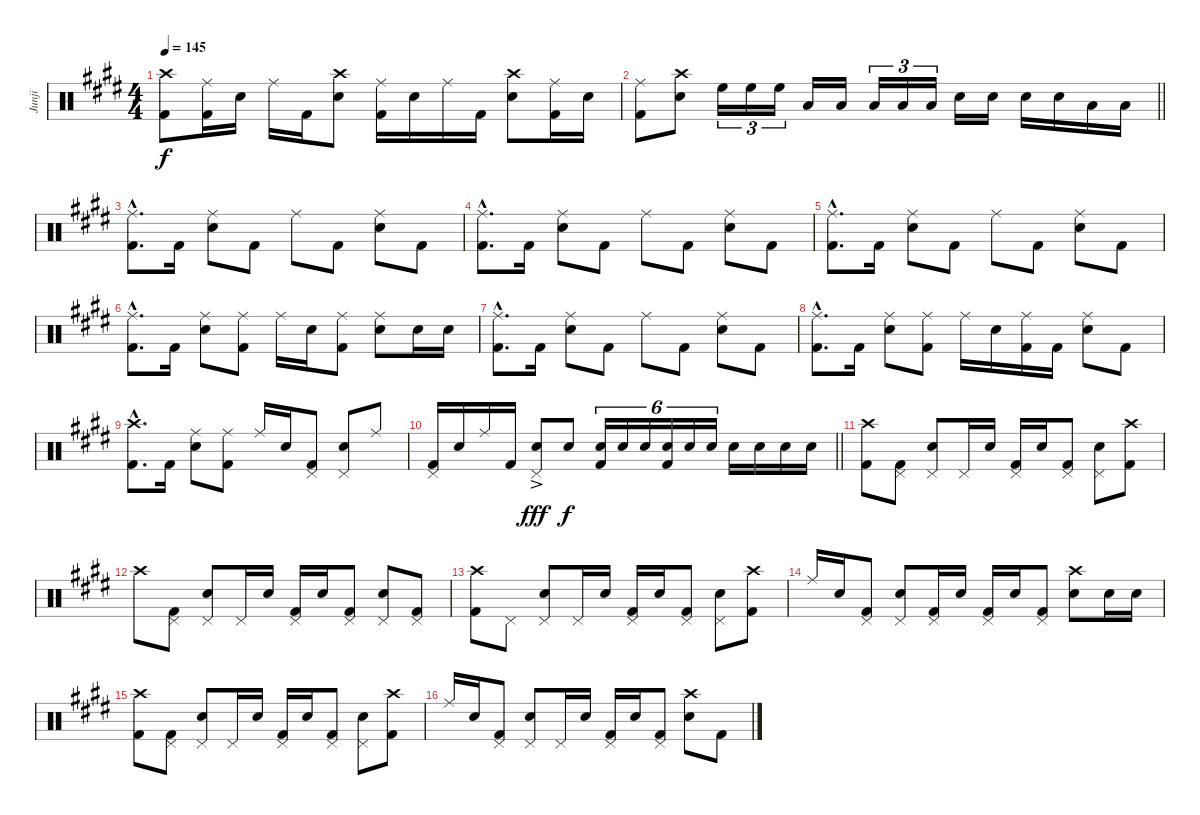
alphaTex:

\track ("Junji" "Junji") {instrument percussion}
\staff {score}
\articulation defaults
\ts (4 4)
\tempo 145
\clef neutral
\ks c#minor
("Crash high (hit)" "Kick (hit) 2").8{dy f} ("Ride (middle)" "Kick (hit) 2").16 "Snare (hit) 2".16 "Ride (middle)".16 "Kick (hit) 2".16 ("Crash high (hit)" "Snare (hit) 2").8 ("Ride (middle)" "Kick (hit) 2").16 "Snare (hit) 2".16 "Ride (middle)".16 "Kick (hit) 2".16 ("Crash high (hit)" "Snare (hit) 2").8 ("Ride (middle)" "Kick (hit) 2").16 "Snare (hit) 2".16 |
\barLineRight lightlight
("Ride (middle)" "Kick (hit) 2").8 ("Crash high (hit)" "Snare (hit) 2").8 "High Floor Tom (hit)".16{tu (3 2)} "High Floor Tom (hit)".16{tu (3 2)} "High Floor Tom (hit)".16{tu (3 2)} "Low Tom (hit)".16 "Low Tom (hit)".16 "Low Tom (hit)".16{tu (3 2)} "Low Tom (hit)".16{tu (3 2)} "Low Tom (hit)".16{tu (3 2)} "Electric Snare (hit)".16 "Electric Snare (hit)".16 "Electric Snare (hit)".16 "Electric Snare (hit)".16 "Low Floor Tom (hit)".16 "Low Floor Tom (hit)".16 |
("Ride (middle)"{hac} "Kick (hit) 2"{hac}).8{d} "Kick (hit) 2".16 ("Ride (middle)" "Snare (hit) 2").8 "Kick (hit) 2".8 "Ride (middle)".8 "Kick (hit) 2".8 ("Ride (middle)" "Snare (hit) 2").8 "Kick (hit) 2".8 |
("Ride (middle)"{hac} "Kick (hit) 2"{hac}).8{d} "Kick (hit) 2".16 ("Ride (middle)" "Snare (hit) 2").8 "Kick (hit) 2".8 "Ride (middle)".8 "Kick (hit) 2".8 ("Ride (middle)" "Snare (hit) 2").8 "Kick (hit) 2".8 |
("Ride (middle)"{hac} "Kick (hit) 2"{hac}).8{d} "Kick (hit) 2".16 ("Ride (middle)" "Snare (hit) 2").8 "Kick (hit) 2".8 "Ride (middle)".8 "Kick (hit) 2".8 ("Ride (middle)" "Snare (hit) 2").8 "Kick (hit) 2".8 |
("Ride (middle)"{hac} "Kick (hit) 2"{hac}).8{d} "Kick (hit) 2".16 ("Ride (middle)" "Snare (hit) 2").8 ("Ride (middle)" "Kick (hit) 2").8 "Ride (middle)".16 "Snare (hit) 2".16 ("Ride (middle)" "Kick (hit) 2").8 ("Ride (middle)" "Snare (hit) 2").8 "Electric Snare (hit)".16 "Electric Snare (hit)".16 |
("Ride (middle)"{hac} "Kick (hit) 2"{hac}).8{d} "Kick (hit) 2".16 ("Ride (middle)" "Snare (hit) 2").8 "Kick (hit) 2".8 "Ride (middle)".8 "Kick (hit) 2".8 ("Ride (middle)" "Snare (hit) 2").8 "Kick (hit) 2".8 |
("Ride (middle)"{hac} "Kick (hit) 2"{hac}).8{d} "Kick (hit) 2".16 ("Ride (middle)" "Snare (hit) 2").8 ("Ride (middle)" "Kick (hit) 2").8 "Ride (middle)".16 "Snare (hit) 2".16 ("Ride (middle)" "Kick (hit) 2").16 "Kick (hit) 2".16 ("Ride (middle)" "Snare (hit) 2").8 "Kick (hit) 2".8 |
("Crash high (hit)"{hac} "Kick (hit) 2"{hac}).8{d} "Kick (hit) 2".16 ("Ride (middle)" "Snare (hit) 2").8 ("Ride (middle)" "Kick (hit) 2").8 "Ride (middle)".16 "Snare (hit) 2".16 ("Pedal Hi-Hat (hit)" "Kick (hit) 2").8 ("Pedal Hi-Hat (hit)" "Snare (hit) 2").8 "Ride (middle)".8 |
\barLineRight lightlight
("Pedal Hi-Hat (hit)" "Kick (hit) 2").16 "Snare (hit) 2".16 "Ride (middle)".16 "Kick (hit) 2".16 ("Pedal Hi-Hat (hit)"{ac} "Snare (hit) 2").8{dy fff} "Snare (hit) 2".8{dy f} ("Snare (hit) 2" "Kick (hit) 2").16{tu (6 4)} "Snare (hit) 2".16{tu (6 4)} "Snare (hit) 2".16{tu (6 4)} ("Snare (hit) 2" "Kick (hit) 2").16{tu (6 4)} "Snare (hit) 2".16{tu (6 4)} "Snare (hit) 2".16{tu (6 4)} "Snare (hit) 2".16 "Snare (hit) 2".16 "Snare (hit) 2".16 "Snare (hit) 2".16 |
("Crash high (hit)" "Kick (hit) 2").8 ("Pedal Hi-Hat (hit)" "Kick (hit) 2").8 ("Pedal Hi-Hat (hit)" "Snare (hit) 2").8 "Pedal Hi-Hat (hit)".16 "Snare (hit) 2".16 ("Pedal Hi-Hat (hit)" "Kick (hit) 2").16 "Snare (hit) 2".16 ("Pedal Hi-Hat (hit)" "Kick (hit) 2").8 ("Pedal Hi-Hat (hit)" "Snare (hit) 2").8 ("Crash high (hit)" "Kick (hit) 2").8 |
"Crash high (hit)".8 ("Pedal Hi-Hat (hit)" "Kick (hit) 2").8 ("Pedal Hi-Hat (hit)" "Snare (hit) 2").8 "Pedal Hi-Hat (hit)".16 "Snare (hit) 2".16 ("Pedal Hi-Hat (hit)" "Kick (hit) 2").16 "Snare (hit) 2".16 ("Pedal Hi-Hat (hit)" "Kick (hit) 2").8 ("Pedal Hi-Hat (hit)" "Snare (hit) 2").8 ("Pedal Hi-Hat (hit)" "Kick (hit) 2").8 |
("Crash high (hit)" "Kick (hit) 2").8 "Pedal Hi-Hat (hit)".8 ("Pedal Hi-Hat (hit)" "Snare (hit) 2").8 "Pedal Hi-Hat (hit)".16 "Snare (hit) 2".16 ("Pedal Hi-Hat (hit)" "Kick (hit) 2").16 "Snare (hit) 2".16 ("Pedal Hi-Hat (hit)" "Kick (hit) 2").8 ("Pedal Hi-Hat (hit)" "Snare (hit) 2").8 ("Crash high (hit)" "Kick (hit) 2").8 |
"Ride (middle)".16 "Snare (hit) 2".16 ("Pedal Hi-Hat (hit)" "Kick (hit) 2").8 ("Pedal Hi-Hat (hit)" "Snare (hit) 2").8 ("Pedal Hi-Hat (hit)" "Kick (hit) 2").16 "Snare (hit) 2".16 ("Pedal Hi-Hat (hit)" "Kick (hit) 2").16 "Snare (hit) 2".16 ("Pedal Hi-Hat (hit)" "Kick (hit) 2").8 ("Crash high (hit)" "Snare (hit) 2").8 "Snare (hit) 2".16 "Snare (hit) 2".16 |
("Crash high (hit)" "Kick (hit) 2").8 ("Pedal Hi-Hat (hit)" "Kick (hit) 2").8 ("Pedal Hi-Hat (hit)" "Snare (hit) 2").8 "Pedal Hi-Hat (hit)".16 "Snare (hit) 2".16 ("Pedal Hi-Hat (hit)" "Kick (hit) 2").16 "Snare (hit) 2".16 ("Pedal Hi-Hat (hit)" "Kick (hit) 2").8 ("Pedal Hi-Hat (hit)" "Snare (hit) 2").8 ("Crash high (hit)" "Kick (hit) 2").8 |
"Ride (middle)".16 "Snare (hit) 2".16 ("Pedal Hi-Hat (hit)" "Kick (hit) 2").8 ("Pedal Hi-Hat (hit)" "Snare (hit) 2").8 "Pedal Hi-Hat (hit)".16 "Snare (hit) 2".16 ("Pedal Hi-Hat (hit)" "Kick (hit) 2").16 "Snare (hit) 2".16 ("Pedal Hi-Hat (hit)" "Kick (hit) 2").8 ("Crash high (hit)" "Snare (hit) 2").8 "Kick (hit) 2".8
